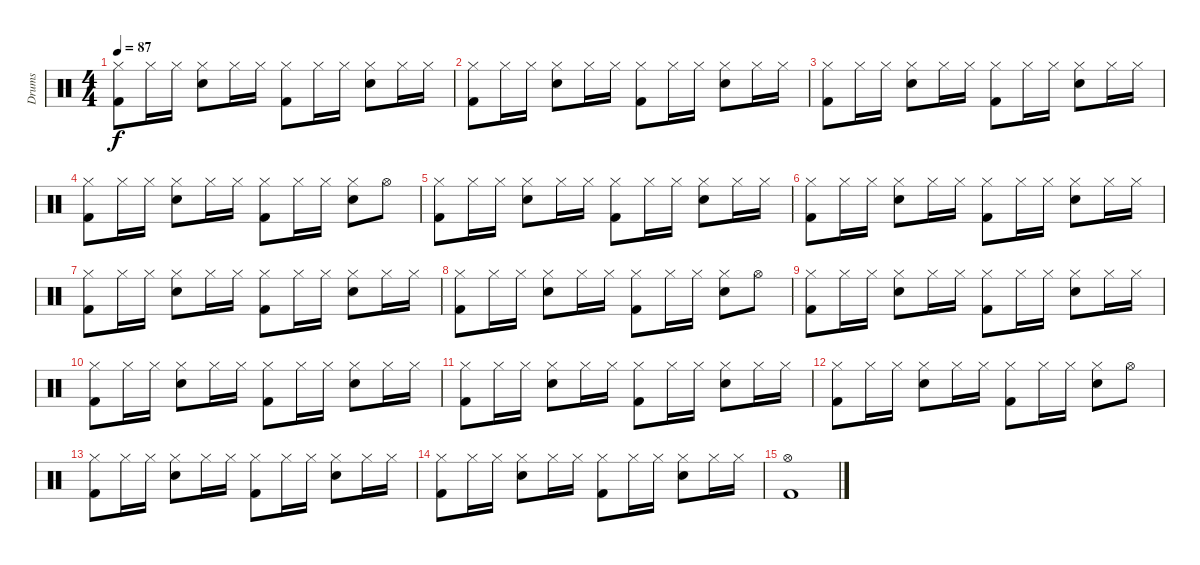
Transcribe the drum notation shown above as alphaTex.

\track ("Drums" "Drums") {instrument percussion}
\staff {score}
\articulation defaults
\ts (4 4)
\tempo 87
\clef neutral
\ks c
("Hi-Hat (closed)" "Kick (hit) 2").8{dy f} "Hi-Hat (closed)".16 "Hi-Hat (closed)".16 ("Hi-Hat (closed)" "Snare (hit) 2").8 "Hi-Hat (closed)".16 "Hi-Hat (closed)".16 ("Hi-Hat (closed)" "Kick (hit) 2").8 "Hi-Hat (closed)".16 "Hi-Hat (closed)".16 ("Hi-Hat (closed)" "Snare (hit) 2").8 "Hi-Hat (closed)".16 "Hi-Hat (closed)".16 |
("Hi-Hat (closed)" "Kick (hit) 2").8 "Hi-Hat (closed)".16 "Hi-Hat (closed)".16 ("Hi-Hat (closed)" "Snare (hit) 2").8 "Hi-Hat (closed)".16 "Hi-Hat (closed)".16 ("Hi-Hat (closed)" "Kick (hit) 2").8 "Hi-Hat (closed)".16 "Hi-Hat (closed)".16 ("Hi-Hat (closed)" "Snare (hit) 2").8 "Hi-Hat (closed)".16 "Hi-Hat (closed)".16 |
("Hi-Hat (closed)" "Kick (hit) 2").8 "Hi-Hat (closed)".16 "Hi-Hat (closed)".16 ("Hi-Hat (closed)" "Snare (hit) 2").8 "Hi-Hat (closed)".16 "Hi-Hat (closed)".16 ("Hi-Hat (closed)" "Kick (hit) 2").8 "Hi-Hat (closed)".16 "Hi-Hat (closed)".16 ("Hi-Hat (closed)" "Snare (hit) 2").8 "Hi-Hat (closed)".16 "Hi-Hat (closed)".16 |
("Hi-Hat (closed)" "Kick (hit) 2").8 "Hi-Hat (closed)".16 "Hi-Hat (closed)".16 ("Hi-Hat (closed)" "Snare (hit) 2").8 "Hi-Hat (closed)".16 "Hi-Hat (closed)".16 ("Hi-Hat (closed)" "Kick (hit) 2").8 "Hi-Hat (closed)".16 "Hi-Hat (closed)".16 ("Hi-Hat (closed)" "Snare (hit) 2").8 "Hi-Hat (open)".8 |
("Hi-Hat (closed)" "Kick (hit) 2").8 "Hi-Hat (closed)".16 "Hi-Hat (closed)".16 ("Hi-Hat (closed)" "Snare (hit) 2").8 "Hi-Hat (closed)".16 "Hi-Hat (closed)".16 ("Hi-Hat (closed)" "Kick (hit) 2").8 "Hi-Hat (closed)".16 "Hi-Hat (closed)".16 ("Hi-Hat (closed)" "Snare (hit) 2").8 "Hi-Hat (closed)".16 "Hi-Hat (closed)".16 |
("Hi-Hat (closed)" "Kick (hit) 2").8 "Hi-Hat (closed)".16 "Hi-Hat (closed)".16 ("Hi-Hat (closed)" "Snare (hit) 2").8 "Hi-Hat (closed)".16 "Hi-Hat (closed)".16 ("Hi-Hat (closed)" "Kick (hit) 2").8 "Hi-Hat (closed)".16 "Hi-Hat (closed)".16 ("Hi-Hat (closed)" "Snare (hit) 2").8 "Hi-Hat (closed)".16 "Hi-Hat (closed)".16 |
("Hi-Hat (closed)" "Kick (hit) 2").8 "Hi-Hat (closed)".16 "Hi-Hat (closed)".16 ("Hi-Hat (closed)" "Snare (hit) 2").8 "Hi-Hat (closed)".16 "Hi-Hat (closed)".16 ("Hi-Hat (closed)" "Kick (hit) 2").8 "Hi-Hat (closed)".16 "Hi-Hat (closed)".16 ("Hi-Hat (closed)" "Snare (hit) 2").8 "Hi-Hat (closed)".16 "Hi-Hat (closed)".16 |
("Hi-Hat (closed)" "Kick (hit) 2").8 "Hi-Hat (closed)".16 "Hi-Hat (closed)".16 ("Hi-Hat (closed)" "Snare (hit) 2").8 "Hi-Hat (closed)".16 "Hi-Hat (closed)".16 ("Hi-Hat (closed)" "Kick (hit) 2").8 "Hi-Hat (closed)".16 "Hi-Hat (closed)".16 ("Hi-Hat (closed)" "Snare (hit) 2").8 "Hi-Hat (open)".8 |
("Hi-Hat (closed)" "Kick (hit) 2").8 "Hi-Hat (closed)".16 "Hi-Hat (closed)".16 ("Hi-Hat (closed)" "Snare (hit) 2").8 "Hi-Hat (closed)".16 "Hi-Hat (closed)".16 ("Hi-Hat (closed)" "Kick (hit) 2").8 "Hi-Hat (closed)".16 "Hi-Hat (closed)".16 ("Hi-Hat (closed)" "Snare (hit) 2").8 "Hi-Hat (closed)".16 "Hi-Hat (closed)".16 |
("Hi-Hat (closed)" "Kick (hit) 2").8 "Hi-Hat (closed)".16 "Hi-Hat (closed)".16 ("Hi-Hat (closed)" "Snare (hit) 2").8 "Hi-Hat (closed)".16 "Hi-Hat (closed)".16 ("Hi-Hat (closed)" "Kick (hit) 2").8 "Hi-Hat (closed)".16 "Hi-Hat (closed)".16 ("Hi-Hat (closed)" "Snare (hit) 2").8 "Hi-Hat (closed)".16 "Hi-Hat (closed)".16 |
("Hi-Hat (closed)" "Kick (hit) 2").8 "Hi-Hat (closed)".16 "Hi-Hat (closed)".16 ("Hi-Hat (closed)" "Snare (hit) 2").8 "Hi-Hat (closed)".16 "Hi-Hat (closed)".16 ("Hi-Hat (closed)" "Kick (hit) 2").8 "Hi-Hat (closed)".16 "Hi-Hat (closed)".16 ("Hi-Hat (closed)" "Snare (hit) 2").8 "Hi-Hat (closed)".16 "Hi-Hat (closed)".16 |
("Hi-Hat (closed)" "Kick (hit) 2").8 "Hi-Hat (closed)".16 "Hi-Hat (closed)".16 ("Hi-Hat (closed)" "Snare (hit) 2").8 "Hi-Hat (closed)".16 "Hi-Hat (closed)".16 ("Hi-Hat (closed)" "Kick (hit) 2").8 "Hi-Hat (closed)".16 "Hi-Hat (closed)".16 ("Hi-Hat (closed)" "Snare (hit) 2").8 "Hi-Hat (open)".8 |
("Hi-Hat (closed)" "Kick (hit) 2").8 "Hi-Hat (closed)".16 "Hi-Hat (closed)".16 ("Hi-Hat (closed)" "Snare (hit) 2").8 "Hi-Hat (closed)".16 "Hi-Hat (closed)".16 ("Hi-Hat (closed)" "Kick (hit) 2").8 "Hi-Hat (closed)".16 "Hi-Hat (closed)".16 ("Hi-Hat (closed)" "Snare (hit) 2").8 "Hi-Hat (closed)".16 "Hi-Hat (closed)".16 |
("Hi-Hat (closed)" "Kick (hit) 2").8 "Hi-Hat (closed)".16 "Hi-Hat (closed)".16 ("Hi-Hat (closed)" "Snare (hit) 2").8 "Hi-Hat (closed)".16 "Hi-Hat (closed)".16 ("Hi-Hat (closed)" "Kick (hit) 2").8 "Hi-Hat (closed)".16 "Hi-Hat (closed)".16 ("Hi-Hat (closed)" "Snare (hit) 2").8 "Hi-Hat (closed)".16 "Hi-Hat (closed)".16 |
("Hi-Hat (open)" "Kick (hit) 2").1
